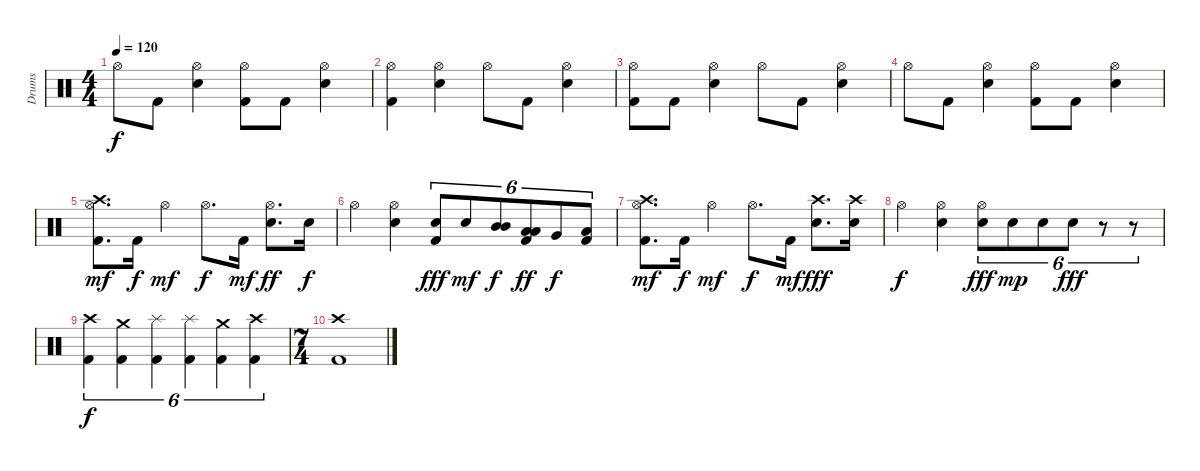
\track ("Drums" "Drums") {instrument percussion}
\staff {score}
\articulation defaults
\ts (4 4)
\tempo 120
\clef neutral
\ks c "Hi-Hat (open)".8{dy f} "Kick (hit) 2".8
("Hi-Hat (open)" "Electric Snare (hit)").4 ("Hi-Hat (open)" "Kick (hit) 2").8 "Kick (hit) 2".8 ("Hi-Hat (open)" "Electric Snare (hit)").4 |
("Hi-Hat (open)" "Kick (hit) 2").4 ("Hi-Hat (open)" "Electric Snare (hit)").4 "Hi-Hat (open)".8 "Kick (hit) 2".8 ("Hi-Hat (open)" "Electric Snare (hit)").4 |
("Hi-Hat (open)" "Kick (hit) 2").8 "Kick (hit) 2".8 ("Hi-Hat (open)" "Electric Snare (hit)").4 "Hi-Hat (open)".8 "Kick (hit) 2".8 ("Hi-Hat (open)" "Electric Snare (hit)").4 |
"Hi-Hat (open)".8 "Kick (hit) 2".8 ("Hi-Hat (open)" "Electric Snare (hit)").4 ("Hi-Hat (open)" "Kick (hit) 2").8 "Kick (hit) 2".8 ("Hi-Hat (open)" "Electric Snare (hit)").4 |
("Hi-Hat (open)" "Crash high (hit)" "Kick (hit) 2").8{d dy mf} "Kick (hit) 2".16{dy f} "Hi-Hat (open)".4{dy mf} "Hi-Hat (open)".8{d dy f} "Kick (hit) 2".16{dy mf} ("Hi-Hat (open)" "Snare (hit) 2").8{d dy ff} "Snare (hit) 2".16{dy f} |
"Hi-Hat (open)".4 ("Hi-Hat (open)" "Snare (hit) 2").4 ("Snare (hit) 2" "Kick (hit) 2").8{tu (6 4) bd 60 dy fff} "Snare (hit) 2".8{tu (6 4) dy mf} ("Mid Tom (hit)" "Mid Tom (hit)").8{tu (6 4) bd 120 dy f} ("Low Tom (hit)" "Low Tom (hit)" "Kick (hit) 2").8{tu (6 4) bd 120 dy ff} "Very Low Tom (hit)".8{tu (6 4) dy f} ("Low Floor Tom (hit)" "Kick (hit) 2").8{tu (6 4)} |
("Hi-Hat (open)" "Crash high (hit)" "Kick (hit) 2").8{d dy mf} "Kick (hit) 2".16{dy f} "Hi-Hat (open)".4{dy mf} "Hi-Hat (open)".8{d dy f} "Kick (hit) 2".16{dy mf} ("Crash high (hit)" "Snare (hit) 2").8{d dy fff} ("Crash high (hit)" "Snare (hit) 2").16 |
"Hi-Hat (open)".4{dy f} ("Hi-Hat (open)" "Snare (hit) 2").4 ("Hi-Hat (open)" "Snare (hit) 2").8{tu (6 4) dy fff} "Snare (hit) 2".8{tu (6 4) dy mp} "Snare (hit) 2".8{tu (6 4)} "Snare (hit) 2".8{tu (6 4) dy fff} r.8{tu (6 4)} r.8{tu (6 4)} |
("Crash high (hit)" "Kick (hit) 2").4{tu (6 4) dy f} ("Crash medium (hit)" "Kick (hit) 2").4{tu (6 4)} ("Splash (hit)" "Kick (hit) 2").4{tu (6 4)} ("Splash (hit)" "Kick (hit) 2").4{tu (6 4)} ("Crash medium (hit)" "Kick (hit) 2").4{tu (6 4)} ("Crash high (hit)" "Kick (hit) 2").4{tu (6 4)} |
\ts (7 4)
("Crash high (hit)" "Kick (hit) 2").1
